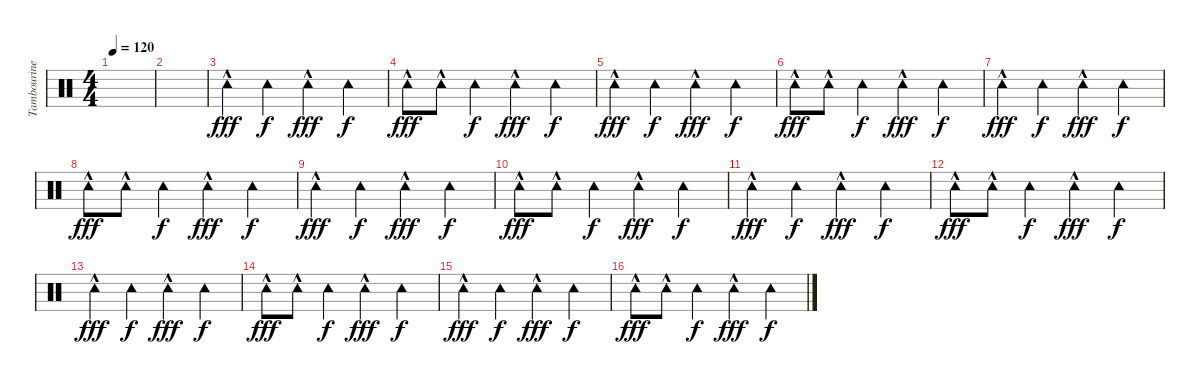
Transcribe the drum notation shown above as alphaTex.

\track ("Tambourine" "Tambourine") {instrument percussion}
\staff {score}
\articulation defaults
\ts (4 4)
\tempo 120
\clef neutral
\ks c
|
|
"Tambourine (hit)"{hac}.4{dy fff} "Tambourine (hit)".4{dy f} "Tambourine (hit)"{hac}.4{dy fff} "Tambourine (hit)".4{dy f} |
"Tambourine (hit)"{hac}.8{dy fff} "Tambourine (hit)"{hac}.8 "Tambourine (hit)".4{dy f} "Tambourine (hit)"{hac}.4{dy fff} "Tambourine (hit)".4{dy f} |
"Tambourine (hit)"{hac}.4{dy fff} "Tambourine (hit)".4{dy f} "Tambourine (hit)"{hac}.4{dy fff} "Tambourine (hit)".4{dy f} |
"Tambourine (hit)"{hac}.8{dy fff} "Tambourine (hit)"{hac}.8 "Tambourine (hit)".4{dy f} "Tambourine (hit)"{hac}.4{dy fff} "Tambourine (hit)".4{dy f} |
"Tambourine (hit)"{hac}.4{dy fff} "Tambourine (hit)".4{dy f} "Tambourine (hit)"{hac}.4{dy fff} "Tambourine (hit)".4{dy f} |
"Tambourine (hit)"{hac}.8{dy fff} "Tambourine (hit)"{hac}.8 "Tambourine (hit)".4{dy f} "Tambourine (hit)"{hac}.4{dy fff} "Tambourine (hit)".4{dy f} |
"Tambourine (hit)"{hac}.4{dy fff} "Tambourine (hit)".4{dy f} "Tambourine (hit)"{hac}.4{dy fff} "Tambourine (hit)".4{dy f} |
"Tambourine (hit)"{hac}.8{dy fff} "Tambourine (hit)"{hac}.8 "Tambourine (hit)".4{dy f} "Tambourine (hit)"{hac}.4{dy fff} "Tambourine (hit)".4{dy f} |
"Tambourine (hit)"{hac}.4{dy fff} "Tambourine (hit)".4{dy f} "Tambourine (hit)"{hac}.4{dy fff} "Tambourine (hit)".4{dy f} |
"Tambourine (hit)"{hac}.8{dy fff} "Tambourine (hit)"{hac}.8 "Tambourine (hit)".4{dy f} "Tambourine (hit)"{hac}.4{dy fff} "Tambourine (hit)".4{dy f} |
"Tambourine (hit)"{hac}.4{dy fff} "Tambourine (hit)".4{dy f} "Tambourine (hit)"{hac}.4{dy fff} "Tambourine (hit)".4{dy f} |
"Tambourine (hit)"{hac}.8{dy fff} "Tambourine (hit)"{hac}.8 "Tambourine (hit)".4{dy f} "Tambourine (hit)"{hac}.4{dy fff} "Tambourine (hit)".4{dy f} |
"Tambourine (hit)"{hac}.4{dy fff} "Tambourine (hit)".4{dy f} "Tambourine (hit)"{hac}.4{dy fff} "Tambourine (hit)".4{dy f} |
"Tambourine (hit)"{hac}.8{dy fff} "Tambourine (hit)"{hac}.8 "Tambourine (hit)".4{dy f} "Tambourine (hit)"{hac}.4{dy fff} "Tambourine (hit)".4{dy f}
